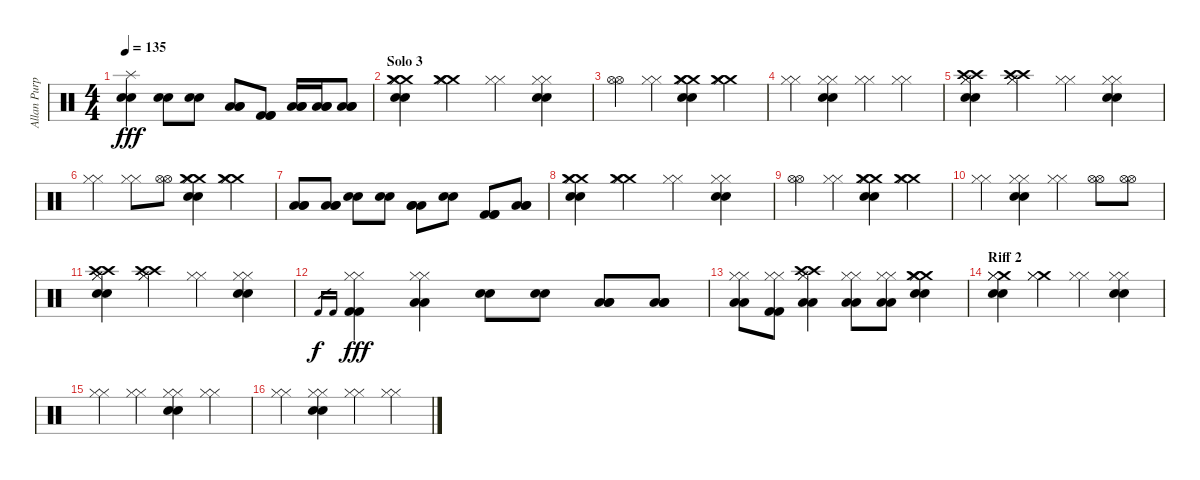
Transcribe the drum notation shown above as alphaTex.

\track ("Allan Purple" "Allan Purp") {instrument percussion}
\staff {score}
\articulation defaults
\ts (4 4)
\tempo 135
\clef neutral
\ks c
("Splash (hit)" "Electric Snare (hit)" "Electric Snare (hit)").4{dy fff} ("Electric Snare (hit)" "Electric Snare (hit)").8 ("Electric Snare (hit)" "Electric Snare (hit)").8 ("Low Tom (hit)" "Low Tom (hit)" "Low Tom (hit)").8 ("Kick (hit) 2" "Kick (hit) 2" "Kick (hit) 2").8 ("Low Tom (hit)" "Low Tom (hit)" "Low Tom (hit)").16 ("Low Tom (hit)" "Low Tom (hit)" "Low Tom (hit)").16 ("Low Tom (hit)" "Low Tom (hit)" "Low Tom (hit)").8 |
\section ("" "Solo 3")
("Crash medium (hit)" "Crash medium (hit)" "Hi-Hat (closed)" "Hi-Hat (closed)" "Electric Snare (hit)" "Electric Snare (hit)").4 ("Crash medium (hit)" "Crash medium (hit)" "Hi-Hat (closed)" "Hi-Hat (closed)").4 ("Hi-Hat (closed)" "Hi-Hat (closed)").4 ("Hi-Hat (closed)" "Hi-Hat (closed)" "Electric Snare (hit)" "Electric Snare (hit)").4 |
("Hi-Hat (open)" "Hi-Hat (open)").4 ("Hi-Hat (closed)" "Hi-Hat (closed)").4 ("Crash medium (hit)" "Crash medium (hit)" "Hi-Hat (closed)" "Hi-Hat (closed)" "Electric Snare (hit)" "Electric Snare (hit)").4 ("Crash medium (hit)" "Crash medium (hit)" "Hi-Hat (closed)" "Hi-Hat (closed)").4 |
("Hi-Hat (closed)" "Hi-Hat (closed)").4 ("Hi-Hat (closed)" "Hi-Hat (closed)" "Electric Snare (hit)" "Electric Snare (hit)").4 ("Hi-Hat (closed)" "Hi-Hat (closed)").4 ("Hi-Hat (closed)" "Hi-Hat (closed)").4 |
("Crash high (hit)" "Crash high (hit)" "Hi-Hat (closed)" "Hi-Hat (closed)" "Electric Snare (hit)" "Electric Snare (hit)").4 ("Crash high (hit)" "Crash high (hit)" "Hi-Hat (closed)" "Hi-Hat (closed)").4 ("Hi-Hat (closed)" "Hi-Hat (closed)").4 ("Hi-Hat (closed)" "Hi-Hat (closed)" "Electric Snare (hit)" "Electric Snare (hit)").4 |
("Hi-Hat (closed)" "Hi-Hat (closed)").4 ("Hi-Hat (closed)" "Hi-Hat (closed)").8 ("Hi-Hat (open)" "Hi-Hat (open)").8 ("Crash medium (hit)" "Crash medium (hit)" "Hi-Hat (closed)" "Hi-Hat (closed)" "Electric Snare (hit)" "Electric Snare (hit)").4 ("Crash medium (hit)" "Crash medium (hit)" "Hi-Hat (closed)" "Hi-Hat (closed)").4 |
("Low Floor Tom (hit)" "Low Floor Tom (hit)" "Low Floor Tom (hit)").8 ("Low Floor Tom (hit)" "Low Floor Tom (hit)" "Low Floor Tom (hit)").8 ("Electric Snare (hit)" "Electric Snare (hit)").8 ("Electric Snare (hit)" "Electric Snare (hit)").8 ("Low Tom (hit)" "Low Tom (hit)" "Low Tom (hit)").8 ("Electric Snare (hit)" "Electric Snare (hit)").8 ("Kick (hit) 2" "Kick (hit) 2" "Kick (hit) 2").8 ("Low Tom (hit)" "Low Tom (hit)" "Low Tom (hit)").8 |
("Crash medium (hit)" "Crash medium (hit)" "Hi-Hat (closed)" "Hi-Hat (closed)" "Electric Snare (hit)" "Electric Snare (hit)").4 ("Crash medium (hit)" "Crash medium (hit)" "Hi-Hat (closed)" "Hi-Hat (closed)").4 ("Hi-Hat (closed)" "Hi-Hat (closed)").4 ("Hi-Hat (closed)" "Hi-Hat (closed)" "Electric Snare (hit)" "Electric Snare (hit)").4 |
("Hi-Hat (open)" "Hi-Hat (open)").4 ("Hi-Hat (closed)" "Hi-Hat (closed)").4 ("Crash medium (hit)" "Crash medium (hit)" "Hi-Hat (closed)" "Hi-Hat (closed)" "Electric Snare (hit)" "Electric Snare (hit)").4 ("Crash medium (hit)" "Crash medium (hit)" "Hi-Hat (closed)" "Hi-Hat (closed)").4 |
("Hi-Hat (closed)" "Hi-Hat (closed)").4 ("Hi-Hat (closed)" "Hi-Hat (closed)" "Electric Snare (hit)" "Electric Snare (hit)").4 ("Hi-Hat (closed)" "Hi-Hat (closed)").4 ("Hi-Hat (open)" "Hi-Hat (open)").8 ("Hi-Hat (open)" "Hi-Hat (open)").8 |
("Crash high (hit)" "Crash high (hit)" "Hi-Hat (closed)" "Hi-Hat (closed)" "Electric Snare (hit)" "Electric Snare (hit)").4 ("Crash high (hit)" "Crash high (hit)" "Hi-Hat (closed)" "Hi-Hat (closed)").4 ("Hi-Hat (closed)" "Hi-Hat (closed)").4 ("Hi-Hat (closed)" "Hi-Hat (closed)" "Electric Snare (hit)" "Electric Snare (hit)").4 |
"Kick (hit) 2".16{gr dy f} "Kick (hit) 2".16{gr} ("Hi-Hat (closed)" "Hi-Hat (closed)" "Kick (hit) 2" "Kick (hit) 2").4{dy fff} ("Hi-Hat (closed)" "Hi-Hat (closed)" "Low Tom (hit)" "Low Tom (hit)").4 ("Electric Snare (hit)" "Electric Snare (hit)").8 ("Electric Snare (hit)" "Electric Snare (hit)").8 ("Low Tom (hit)" "Low Tom (hit)" "Low Tom (hit)").8 ("Low Tom (hit)" "Low Tom (hit)" "Low Tom (hit)").8 |
("Hi-Hat (closed)" "Hi-Hat (closed)" "Low Tom (hit)" "Low Tom (hit)").8 ("Hi-Hat (closed)" "Hi-Hat (closed)" "Kick (hit) 2" "Kick (hit) 2").8 ("Crash high (hit)" "Crash high (hit)" "Hi-Hat (closed)" "Hi-Hat (closed)" "Low Tom (hit)" "Low Tom (hit)").4 ("Hi-Hat (closed)" "Hi-Hat (closed)" "Low Tom (hit)" "Low Tom (hit)").8 ("Hi-Hat (closed)" "Hi-Hat (closed)" "Low Tom (hit)" "Low Tom (hit)").8 ("Crash medium (hit)" "Crash medium (hit)" "Hi-Hat (closed)" "Hi-Hat (closed)" "Electric Snare (hit)" "Electric Snare (hit)").4 |
\section ("" "Riff 2")
("Crash medium (hit)" "Hi-Hat (closed)" "Hi-Hat (closed)" "Electric Snare (hit)" "Electric Snare (hit)").4 ("Crash medium (hit)" "Hi-Hat (closed)" "Hi-Hat (closed)").4 ("Hi-Hat (closed)" "Hi-Hat (closed)").4 ("Hi-Hat (closed)" "Hi-Hat (closed)" "Electric Snare (hit)" "Electric Snare (hit)").4 |
("Hi-Hat (closed)" "Hi-Hat (closed)").4 ("Hi-Hat (closed)" "Hi-Hat (closed)").4 ("Hi-Hat (closed)" "Hi-Hat (closed)" "Electric Snare (hit)" "Electric Snare (hit)").4 ("Hi-Hat (closed)" "Hi-Hat (closed)").4 |
("Hi-Hat (closed)" "Hi-Hat (closed)").4 ("Hi-Hat (closed)" "Hi-Hat (closed)" "Electric Snare (hit)" "Electric Snare (hit)").4 ("Hi-Hat (closed)" "Hi-Hat (closed)").4 ("Hi-Hat (closed)" "Hi-Hat (closed)").4
